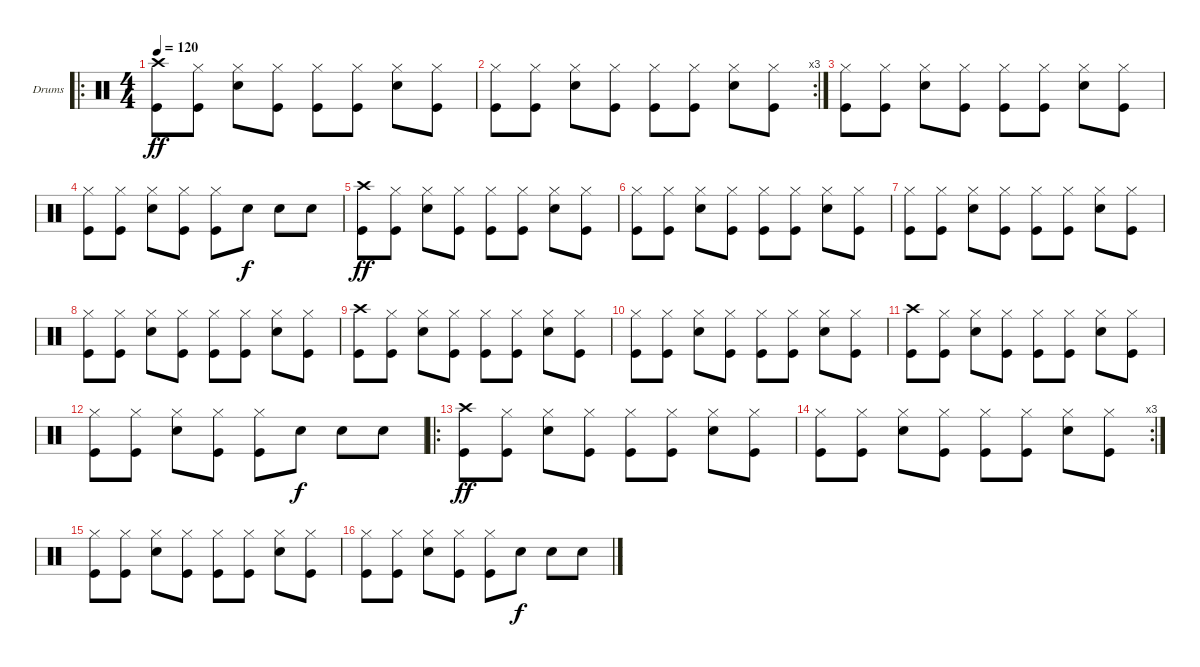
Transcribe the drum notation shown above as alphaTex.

\defaultSystemsLayout 4
\bracketExtendMode groupsimilarinstruments
\firstSystemTrackNameOrientation horizontal
\otherSystemsTrackNameOrientation horizontal
\track ("Drumkit" "Drums") {instrument percussion}
\staff {score}
\articulation defaults
\ro
\ts (4 4)
\tempo 120
\clef neutral
\ks c
("Kick (hit)" "Crash high (hit)").8{dy ff} ("Kick (hit)" "Hi-Hat (closed)").8 ("Snare (hit) 2" "Hi-Hat (closed)").8 ("Kick (hit)" "Hi-Hat (closed)").8 ("Kick (hit)" "Hi-Hat (closed)").8 ("Kick (hit)" "Hi-Hat (closed)").8 ("Snare (hit) 2" "Hi-Hat (closed)").8 ("Kick (hit)" "Hi-Hat (closed)").8 |
\rc 3
("Kick (hit)" "Hi-Hat (closed)").8 ("Kick (hit)" "Hi-Hat (closed)").8 ("Snare (hit) 2" "Hi-Hat (closed)").8 ("Kick (hit)" "Hi-Hat (closed)").8 ("Kick (hit)" "Hi-Hat (closed)").8 ("Kick (hit)" "Hi-Hat (closed)").8 ("Snare (hit) 2" "Hi-Hat (closed)").8 ("Kick (hit)" "Hi-Hat (closed)").8 |
("Kick (hit)" "Hi-Hat (closed)").8 ("Kick (hit)" "Hi-Hat (closed)").8 ("Snare (hit) 2" "Hi-Hat (closed)").8 ("Kick (hit)" "Hi-Hat (closed)").8 ("Kick (hit)" "Hi-Hat (closed)").8 ("Kick (hit)" "Hi-Hat (closed)").8 ("Snare (hit) 2" "Hi-Hat (closed)").8 ("Kick (hit)" "Hi-Hat (closed)").8 |
("Kick (hit)" "Hi-Hat (closed)").8 ("Kick (hit)" "Hi-Hat (closed)").8 ("Snare (hit) 2" "Hi-Hat (closed)").8 ("Kick (hit)" "Hi-Hat (closed)").8 ("Kick (hit)" "Hi-Hat (closed)").8 "Snare (hit) 2".8{dy f} "Snare (hit) 2".8 "Snare (hit) 2".8 |
("Kick (hit)" "Crash high (hit)").8{dy ff} ("Kick (hit)" "Hi-Hat (closed)").8 ("Snare (hit) 2" "Hi-Hat (closed)").8 ("Kick (hit)" "Hi-Hat (closed)").8 ("Kick (hit)" "Hi-Hat (closed)").8 ("Kick (hit)" "Hi-Hat (closed)").8 ("Snare (hit) 2" "Hi-Hat (closed)").8 ("Kick (hit)" "Hi-Hat (closed)").8 |
("Kick (hit)" "Hi-Hat (closed)").8 ("Kick (hit)" "Hi-Hat (closed)").8 ("Snare (hit) 2" "Hi-Hat (closed)").8 ("Kick (hit)" "Hi-Hat (closed)").8 ("Kick (hit)" "Hi-Hat (closed)").8 ("Kick (hit)" "Hi-Hat (closed)").8 ("Snare (hit) 2" "Hi-Hat (closed)").8 ("Kick (hit)" "Hi-Hat (closed)").8 |
("Kick (hit)" "Hi-Hat (closed)").8 ("Kick (hit)" "Hi-Hat (closed)").8 ("Snare (hit) 2" "Hi-Hat (closed)").8 ("Kick (hit)" "Hi-Hat (closed)").8 ("Kick (hit)" "Hi-Hat (closed)").8 ("Kick (hit)" "Hi-Hat (closed)").8 ("Snare (hit) 2" "Hi-Hat (closed)").8 ("Kick (hit)" "Hi-Hat (closed)").8 |
("Kick (hit)" "Hi-Hat (closed)").8 ("Kick (hit)" "Hi-Hat (closed)").8 ("Snare (hit) 2" "Hi-Hat (closed)").8 ("Kick (hit)" "Hi-Hat (closed)").8 ("Kick (hit)" "Hi-Hat (closed)").8 ("Kick (hit)" "Hi-Hat (closed)").8 ("Snare (hit) 2" "Hi-Hat (closed)").8 ("Kick (hit)" "Hi-Hat (closed)").8 |
("Kick (hit)" "Crash high (hit)").8 ("Kick (hit)" "Hi-Hat (closed)").8 ("Snare (hit) 2" "Hi-Hat (closed)").8 ("Kick (hit)" "Hi-Hat (closed)").8 ("Kick (hit)" "Hi-Hat (closed)").8 ("Kick (hit)" "Hi-Hat (closed)").8 ("Snare (hit) 2" "Hi-Hat (closed)").8 ("Kick (hit)" "Hi-Hat (closed)").8 |
("Kick (hit)" "Hi-Hat (closed)").8 ("Kick (hit)" "Hi-Hat (closed)").8 ("Snare (hit) 2" "Hi-Hat (closed)").8 ("Kick (hit)" "Hi-Hat (closed)").8 ("Kick (hit)" "Hi-Hat (closed)").8 ("Kick (hit)" "Hi-Hat (closed)").8 ("Snare (hit) 2" "Hi-Hat (closed)").8 ("Kick (hit)" "Hi-Hat (closed)").8 |
("Kick (hit)" "Crash high (hit)").8 ("Kick (hit)" "Hi-Hat (closed)").8 ("Snare (hit) 2" "Hi-Hat (closed)").8 ("Kick (hit)" "Hi-Hat (closed)").8 ("Kick (hit)" "Hi-Hat (closed)").8 ("Kick (hit)" "Hi-Hat (closed)").8 ("Snare (hit) 2" "Hi-Hat (closed)").8 ("Kick (hit)" "Hi-Hat (closed)").8 |
("Kick (hit)" "Hi-Hat (closed)").8 ("Kick (hit)" "Hi-Hat (closed)").8 ("Snare (hit) 2" "Hi-Hat (closed)").8 ("Kick (hit)" "Hi-Hat (closed)").8 ("Kick (hit)" "Hi-Hat (closed)").8 "Snare (hit) 2".8{dy f} "Snare (hit) 2".8 "Snare (hit) 2".8 |
\ro
("Kick (hit)" "Crash high (hit)").8{dy ff} ("Kick (hit)" "Hi-Hat (closed)").8 ("Snare (hit) 2" "Hi-Hat (closed)").8 ("Kick (hit)" "Hi-Hat (closed)").8 ("Kick (hit)" "Hi-Hat (closed)").8 ("Kick (hit)" "Hi-Hat (closed)").8 ("Snare (hit) 2" "Hi-Hat (closed)").8 ("Kick (hit)" "Hi-Hat (closed)").8 |
\rc 3
("Kick (hit)" "Hi-Hat (closed)").8 ("Kick (hit)" "Hi-Hat (closed)").8 ("Snare (hit) 2" "Hi-Hat (closed)").8 ("Kick (hit)" "Hi-Hat (closed)").8 ("Kick (hit)" "Hi-Hat (closed)").8 ("Kick (hit)" "Hi-Hat (closed)").8 ("Snare (hit) 2" "Hi-Hat (closed)").8 ("Kick (hit)" "Hi-Hat (closed)").8 |
("Kick (hit)" "Hi-Hat (closed)").8 ("Kick (hit)" "Hi-Hat (closed)").8 ("Snare (hit) 2" "Hi-Hat (closed)").8 ("Kick (hit)" "Hi-Hat (closed)").8 ("Kick (hit)" "Hi-Hat (closed)").8 ("Kick (hit)" "Hi-Hat (closed)").8 ("Snare (hit) 2" "Hi-Hat (closed)").8 ("Kick (hit)" "Hi-Hat (closed)").8 |
("Kick (hit)" "Hi-Hat (closed)").8 ("Kick (hit)" "Hi-Hat (closed)").8 ("Snare (hit) 2" "Hi-Hat (closed)").8 ("Kick (hit)" "Hi-Hat (closed)").8 ("Kick (hit)" "Hi-Hat (closed)").8 "Snare (hit) 2".8{dy f} "Snare (hit) 2".8 "Snare (hit) 2".8
